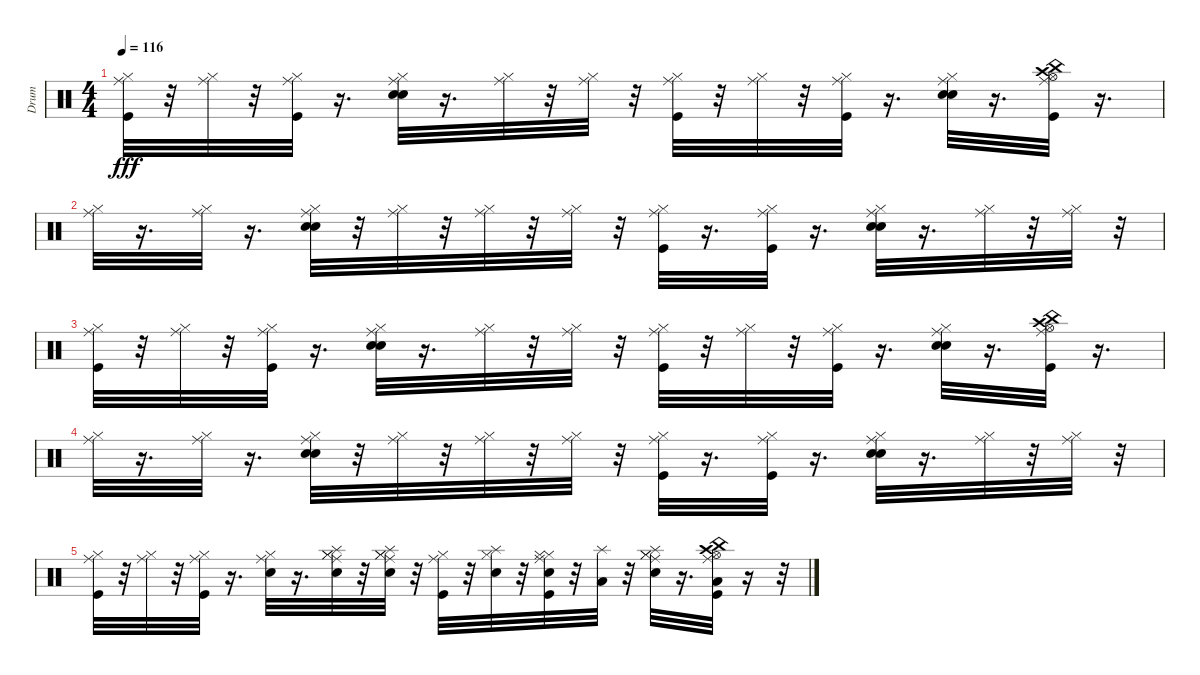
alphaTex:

\track ("Drum" "Drum") {instrument percussion}
\staff {score}
\articulation defaults
\ts (4 4)
\tempo 116
\clef neutral
\ks c
("Ride (middle)" "Hi-Hat (closed)" "Kick (hit)").32{dy fff} r.32 ("Ride (middle)" "Hi-Hat (closed)").32 r.32 ("Ride (middle)" "Hi-Hat (closed)" "Kick (hit)").32 r.16{d} ("Ride (middle)" "Hi-Hat (closed)" "Snare (hit) 2" "Electric Snare (hit)").32 r.16{d} ("Ride (middle)" "Hi-Hat (closed)").32 r.32 ("Ride (middle)" "Hi-Hat (closed)").32 r.32 ("Ride (middle)" "Hi-Hat (closed)" "Kick (hit)").32 r.32 ("Ride (middle)" "Hi-Hat (closed)").32 r.32 ("Ride (middle)" "Hi-Hat (closed)" "Kick (hit)").32 r.16{d} ("Ride (middle)" "Hi-Hat (closed)" "Snare (hit) 2" "Electric Snare (hit)").32 r.16{d} ("Crash high (hit)" "China (hit)" "Ride (middle)" "Hi-Hat (open)" "Kick (hit)").32 r.16{d} |
("Ride (middle)" "Hi-Hat (closed)").32 r.16{d} ("Ride (middle)" "Hi-Hat (closed)").32 r.16{d} ("Snare (hit) 2" "Electric Snare (hit)" "Ride (middle)" "Hi-Hat (closed)").32 r.32 ("Ride (middle)" "Hi-Hat (closed)").32 r.32 ("Ride (middle)" "Hi-Hat (closed)").32 r.32 ("Ride (middle)" "Hi-Hat (closed)").32 r.32 ("Ride (middle)" "Hi-Hat (closed)" "Kick (hit)").32 r.16{d} ("Kick (hit)" "Ride (middle)" "Hi-Hat (closed)").32 r.16{d} ("Ride (middle)" "Hi-Hat (closed)" "Snare (hit) 2" "Electric Snare (hit)").32 r.16{d} ("Ride (middle)" "Hi-Hat (closed)").32 r.32 ("Ride (middle)" "Hi-Hat (closed)").32 r.32 |
("Ride (middle)" "Hi-Hat (closed)" "Kick (hit)").32 r.32 ("Ride (middle)" "Hi-Hat (closed)").32 r.32 ("Ride (middle)" "Hi-Hat (closed)" "Kick (hit)").32 r.16{d} ("Ride (middle)" "Hi-Hat (closed)" "Snare (hit) 2" "Electric Snare (hit)").32 r.16{d} ("Ride (middle)" "Hi-Hat (closed)").32 r.32 ("Ride (middle)" "Hi-Hat (closed)").32 r.32 ("Ride (middle)" "Hi-Hat (closed)" "Kick (hit)").32 r.32 ("Ride (middle)" "Hi-Hat (closed)").32 r.32 ("Ride (middle)" "Hi-Hat (closed)" "Kick (hit)").32 r.16{d} ("Snare (hit) 2" "Electric Snare (hit)" "Ride (middle)" "Hi-Hat (closed)").32 r.16{d} ("Crash high (hit)" "China (hit)" "Ride (middle)" "Hi-Hat (open)" "Kick (hit)").32 r.16{d} |
("Ride (middle)" "Hi-Hat (closed)").32 r.16{d} ("Ride (middle)" "Hi-Hat (closed)").32 r.16{d} ("Snare (hit) 2" "Electric Snare (hit)" "Ride (middle)" "Hi-Hat (closed)").32 r.32 ("Ride (middle)" "Hi-Hat (closed)").32 r.32 ("Ride (middle)" "Hi-Hat (closed)").32 r.32 ("Ride (middle)" "Hi-Hat (closed)").32 r.32 ("Ride (middle)" "Hi-Hat (closed)" "Kick (hit)").32 r.16{d} ("Ride (middle)" "Hi-Hat (closed)" "Kick (hit)").32 r.16{d} ("Snare (hit) 2" "Electric Snare (hit)" "Ride (middle)" "Hi-Hat (closed)").32 r.16{d} ("Ride (middle)" "Hi-Hat (closed)").32 r.32 ("Ride (middle)" "Hi-Hat (closed)").32 r.32 |
("Ride (middle)" "Hi-Hat (closed)" "Kick (hit)").32 r.32 ("Ride (middle)" "Hi-Hat (closed)").32 r.32 ("Ride (middle)" "Hi-Hat (closed)" "Kick (hit)").32 r.16{d} ("Ride (middle)" "Hi-Hat (closed)" "Snare (hit) 2").32 r.16{d} ("Hi-Hat (closed)" "Snare (hit) 2" "Splash (hit)" "Ride (middle)" "Hi-Hat (closed)").32 r.32 ("Snare (hit) 2" "Hi-Hat (closed)" "Splash (hit)" "Ride (middle)" "Hi-Hat (closed)").32 r.32 ("Ride (middle)" "Hi-Hat (closed)" "Kick (hit)").32 r.32 ("Hi-Hat (closed)" "Snare (hit) 2" "Splash (hit)").32 r.32 ("Hi-Hat (closed)" "Snare (hit) 2" "Ride (middle)" "Hi-Hat (closed)" "Kick (hit)").32 r.32 ("Low Floor Tom (hit)" "Splash (hit)").32 r.32 ("Snare (hit) 2" "Hi-Hat (closed)" "Splash (hit)" "Ride (middle)" "Hi-Hat (closed)").32 r.16{d} ("Kick (hit)" "Crash high (hit)" "China (hit)" "Low Floor Tom (hit)" "Ride (middle)" "Hi-Hat (open)").32 r.16 r.32
